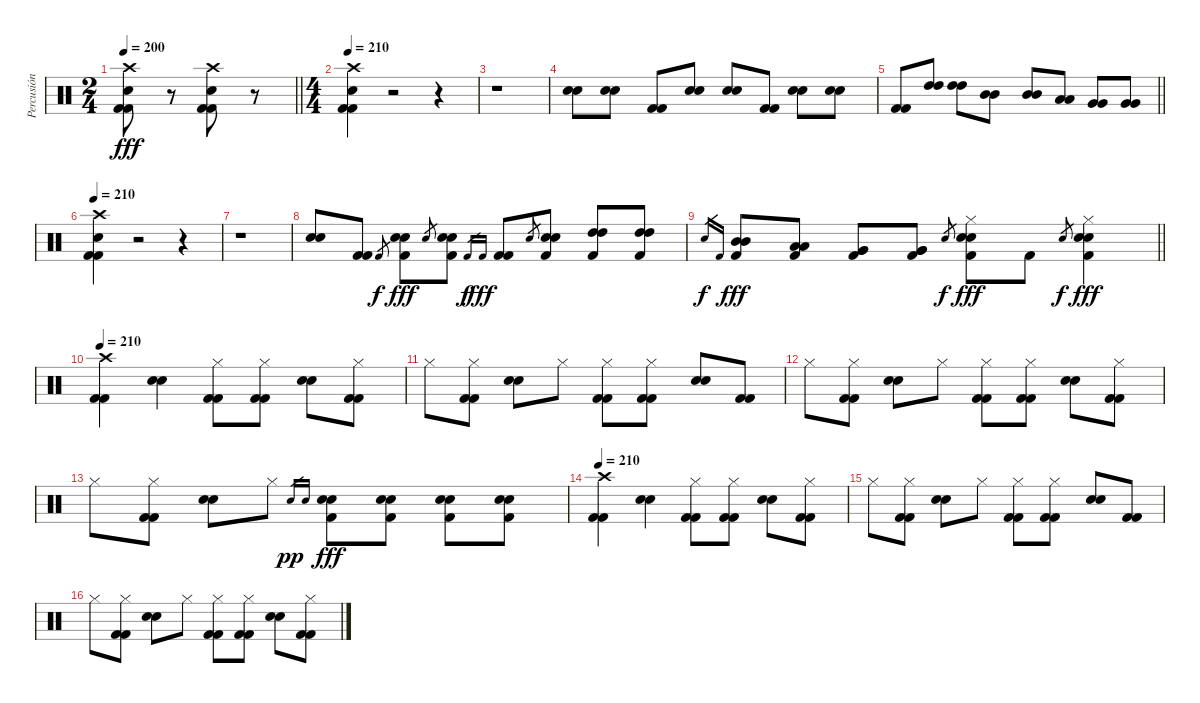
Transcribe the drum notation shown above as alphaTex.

\track ("Percusión" "Percusión") {instrument percussion}
\staff {score}
\articulation defaults
\ts (2 4)
\tempo 200
\clef neutral
\barLineRight lightlight
\ks c
("Crash high (hit)" "Snare (hit) 2" "Kick (hit) 2" "Kick (hit) 2").8{dy fff} r.8 ("Crash high (hit)" "Snare (hit) 2" "Kick (hit) 2" "Kick (hit) 2").8 r.8 |
\ts (4 4)
\tempo 210
("Crash high (hit)" "Snare (hit) 2" "Kick (hit) 2" "Kick (hit) 2").4 r.2 r.4 |
r.1 |
("Electric Snare (hit)" "Snare (hit) 2").8 ("Electric Snare (hit)" "Snare (hit) 2").8 ("Kick (hit) 2" "Kick (hit) 2").8 ("Electric Snare (hit)" "Snare (hit) 2").8 ("Electric Snare (hit)" "Snare (hit) 2").8 ("Kick (hit) 2" "Kick (hit) 2").8 ("Electric Snare (hit)" "Snare (hit) 2").8 ("Electric Snare (hit)" "Snare (hit) 2").8 |
\barLineRight lightlight
("Kick (hit) 2" "Kick (hit) 2").8 ("High Tom (hit)" "High Tom (hit)").8 ("High Tom (hit)" "High Tom (hit)").8 ("Mid Tom (hit)" "Mid Tom (hit)").8 ("Mid Tom (hit)" "Mid Tom (hit)").8 ("Low Tom (hit)" "Low Tom (hit)").8 ("Very Low Tom (hit)" "Very Low Tom (hit)").8 ("Very Low Tom (hit)" "Very Low Tom (hit)").8 |
\tempo 210
("Crash high (hit)" "Snare (hit) 2" "Kick (hit) 2" "Kick (hit) 2").4 r.2 r.4 |
r.1 |
("Electric Snare (hit)" "Snare (hit) 2").8 ("Kick (hit) 2" "Kick (hit) 2").8 "Kick (hit) 2".8{gr dy f} ("Electric Snare (hit)" "Snare (hit) 2" "Kick (hit) 2").8{dy fff} "Snare (hit) 2".8{gr} ("Electric Snare (hit)" "Snare (hit) 2" "Kick (hit) 2").8 "Kick (hit) 2".16{gr dy f} "Kick (hit) 2".16{gr dy fff} ("Kick (hit) 2" "Kick (hit) 2").8 "Snare (hit) 2".8{gr} ("Electric Snare (hit)" "Snare (hit) 2" "Kick (hit) 2").8 ("High Tom (hit)" "High Tom (hit)" "Kick (hit) 2").8 ("High Tom (hit)" "High Tom (hit)" "Kick (hit) 2").8 |
\barLineRight lightlight "Snare (hit) 2".16{gr dy f} "Kick (hit) 2".16{gr}
("Mid Tom (hit)" "Mid Tom (hit)" "Kick (hit) 2").8{dy fff} ("Low Tom (hit)" "Low Tom (hit)" "Kick (hit) 2").8 ("Very Low Tom (hit)" "Very Low Tom (hit)" "Kick (hit) 2").8 ("Very Low Tom (hit)" "Very Low Tom (hit)" "Kick (hit) 2").8 "Snare (hit) 2".8{gr dy f} ("Hi-Hat (closed)" "Electric Snare (hit)" "Snare (hit) 2" "Kick (hit) 2").8{dy fff} "Kick (hit) 2".8 "Snare (hit) 2".8{gr dy f} ("Hi-Hat (closed)" "Electric Snare (hit)" "Snare (hit) 2" "Kick (hit) 2").4{dy fff} |
\tempo 210
("Crash high (hit)" "Kick (hit) 2" "Kick (hit) 2").4 ("Electric Snare (hit)" "Snare (hit) 2").4 ("Hi-Hat (closed)" "Kick (hit) 2" "Kick (hit) 2").8 ("Hi-Hat (closed)" "Kick (hit) 2" "Kick (hit) 2").8 ("Electric Snare (hit)" "Snare (hit) 2").8 ("Hi-Hat (closed)" "Kick (hit) 2" "Kick (hit) 2").8 |
"Hi-Hat (closed)".8 ("Hi-Hat (closed)" "Kick (hit) 2" "Kick (hit) 2").8 ("Electric Snare (hit)" "Snare (hit) 2").8 "Hi-Hat (closed)".8 ("Hi-Hat (closed)" "Kick (hit) 2" "Kick (hit) 2").8 ("Hi-Hat (closed)" "Kick (hit) 2" "Kick (hit) 2").8 ("Electric Snare (hit)" "Snare (hit) 2").8 ("Kick (hit) 2" "Kick (hit) 2").8 |
"Hi-Hat (closed)".8 ("Hi-Hat (closed)" "Kick (hit) 2" "Kick (hit) 2").8 ("Electric Snare (hit)" "Snare (hit) 2").8 "Hi-Hat (closed)".8 ("Hi-Hat (closed)" "Kick (hit) 2" "Kick (hit) 2").8 ("Hi-Hat (closed)" "Kick (hit) 2" "Kick (hit) 2").8 ("Electric Snare (hit)" "Snare (hit) 2").8 ("Hi-Hat (closed)" "Kick (hit) 2" "Kick (hit) 2").8 |
"Hi-Hat (closed)".8 ("Hi-Hat (closed)" "Kick (hit) 2" "Kick (hit) 2").8 ("Electric Snare (hit)" "Snare (hit) 2").8 "Hi-Hat (closed)".8 "Electric Snare (hit)".16{gr dy pp} "Snare (hit) 2".16{gr} ("Electric Snare (hit)" "Snare (hit) 2" "Kick (hit) 2").8{dy fff} ("Electric Snare (hit)" "Snare (hit) 2" "Kick (hit) 2").8 ("Electric Snare (hit)" "Snare (hit) 2" "Kick (hit) 2").8 ("Electric Snare (hit)" "Snare (hit) 2" "Kick (hit) 2").8 |
\tempo 210
("Crash high (hit)" "Kick (hit) 2" "Kick (hit) 2").4 ("Electric Snare (hit)" "Snare (hit) 2").4 ("Hi-Hat (closed)" "Kick (hit) 2" "Kick (hit) 2").8 ("Hi-Hat (closed)" "Kick (hit) 2" "Kick (hit) 2").8 ("Electric Snare (hit)" "Snare (hit) 2").8 ("Hi-Hat (closed)" "Kick (hit) 2" "Kick (hit) 2").8 |
"Hi-Hat (closed)".8 ("Hi-Hat (closed)" "Kick (hit) 2" "Kick (hit) 2").8 ("Electric Snare (hit)" "Snare (hit) 2").8 "Hi-Hat (closed)".8 ("Hi-Hat (closed)" "Kick (hit) 2" "Kick (hit) 2").8 ("Hi-Hat (closed)" "Kick (hit) 2" "Kick (hit) 2").8 ("Electric Snare (hit)" "Snare (hit) 2").8 ("Kick (hit) 2" "Kick (hit) 2").8 |
"Hi-Hat (closed)".8 ("Hi-Hat (closed)" "Kick (hit) 2" "Kick (hit) 2").8 ("Electric Snare (hit)" "Snare (hit) 2").8 "Hi-Hat (closed)".8 ("Hi-Hat (closed)" "Kick (hit) 2" "Kick (hit) 2").8 ("Hi-Hat (closed)" "Kick (hit) 2" "Kick (hit) 2").8 ("Electric Snare (hit)" "Snare (hit) 2").8 ("Hi-Hat (closed)" "Kick (hit) 2" "Kick (hit) 2").8
